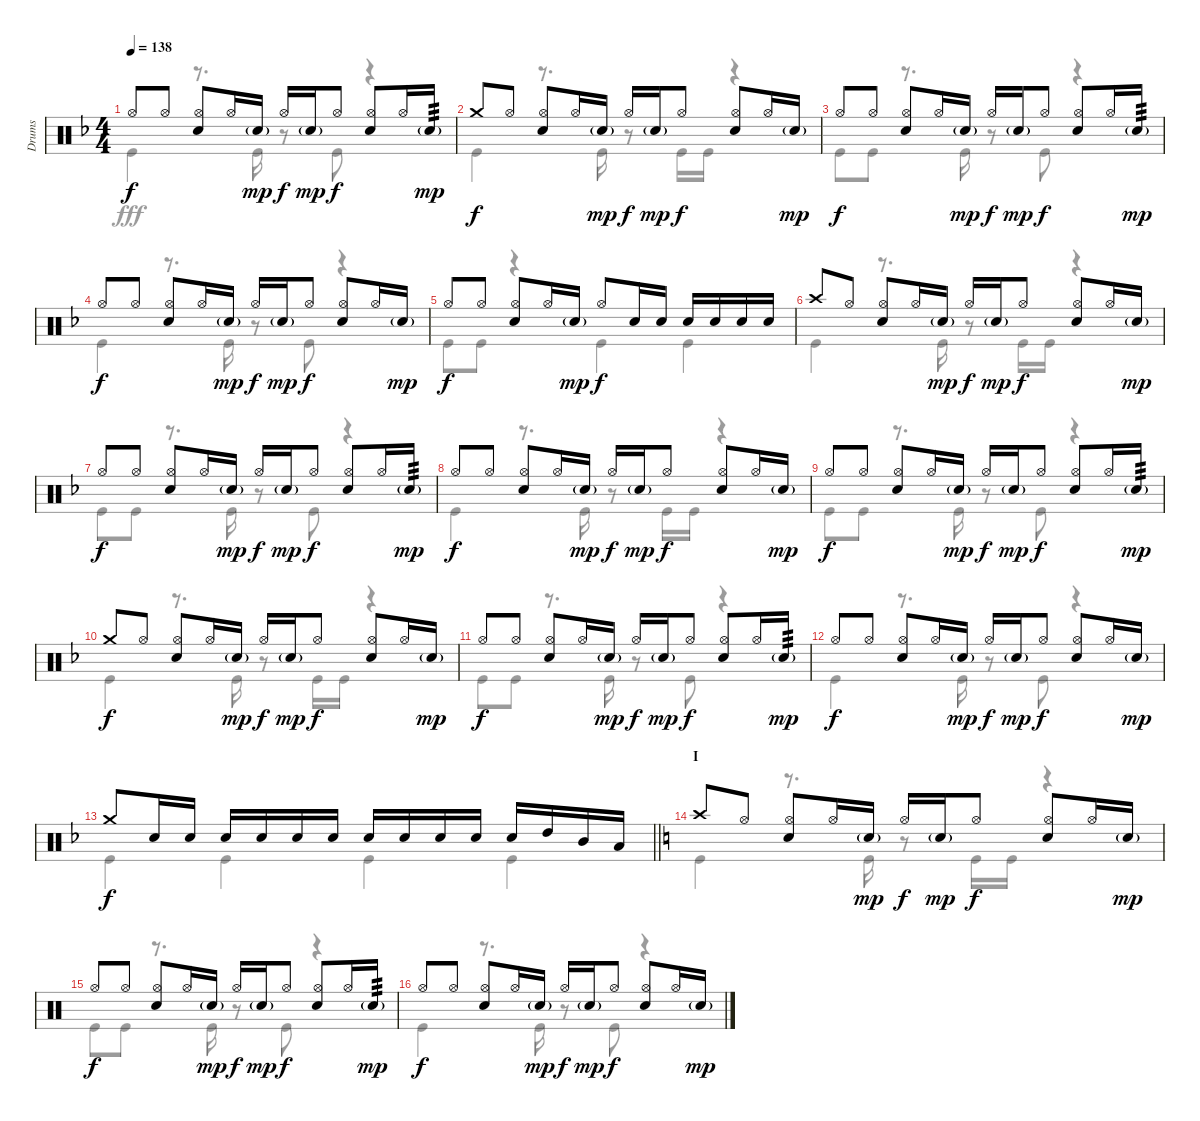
\track ("Drums" "Drums") {instrument percussion}
\staff {score}
\articulation defaults
\voice
\ts (4 4)
\tempo 138
\clef neutral
\ks f "Hi-Hat (open)".8{dy f} "Hi-Hat (open)".8
("Hi-Hat (open)" "Snare (hit) 2").8 "Hi-Hat (open)".16 "Snare (hit) 2"{g}.16{dy mp} "Hi-Hat (open)".16{dy f} "Snare (hit) 2"{g}.16{dy mp} "Hi-Hat (open)".8{dy f} ("Hi-Hat (open)" "Snare (hit) 2").8 "Hi-Hat (open)".16 "Snare (hit) 2"{g}.16{tp 3 dy mp} |
"Crash medium (hit)".8{dy f} "Hi-Hat (open)".8 ("Hi-Hat (open)" "Snare (hit) 2").8 "Hi-Hat (open)".16 "Snare (hit) 2"{g}.16{dy mp} "Hi-Hat (open)".16{dy f} "Snare (hit) 2"{g}.16{dy mp} "Hi-Hat (open)".8{dy f} ("Hi-Hat (open)" "Snare (hit) 2").8 "Hi-Hat (open)".16 "Snare (hit) 2"{g}.16{dy mp} |
"Hi-Hat (open)".8{dy f} "Hi-Hat (open)".8 ("Hi-Hat (open)" "Snare (hit) 2").8 "Hi-Hat (open)".16 "Snare (hit) 2"{g}.16{dy mp} "Hi-Hat (open)".16{dy f} "Snare (hit) 2"{g}.16{dy mp} "Hi-Hat (open)".8{dy f} ("Hi-Hat (open)" "Snare (hit) 2").8 "Hi-Hat (open)".16 "Snare (hit) 2"{g}.16{tp 3 dy mp} |
"Hi-Hat (open)".8{dy f} "Hi-Hat (open)".8 ("Hi-Hat (open)" "Snare (hit) 2").8 "Hi-Hat (open)".16 "Snare (hit) 2"{g}.16{dy mp} "Hi-Hat (open)".16{dy f} "Snare (hit) 2"{g}.16{dy mp} "Hi-Hat (open)".8{dy f} ("Hi-Hat (open)" "Snare (hit) 2").8 "Hi-Hat (open)".16 "Snare (hit) 2"{g}.16{dy mp} |
"Hi-Hat (open)".8{dy f} "Hi-Hat (open)".8 ("Hi-Hat (open)" "Snare (hit) 2").8 "Hi-Hat (open)".16 "Snare (hit) 2"{g}.16{dy mp} "Hi-Hat (open)".8{dy f} "Snare (hit) 2".16 "Snare (hit) 2".16 "Snare (hit) 2".16 "Snare (hit) 2".16 "Snare (hit) 2".16 "Snare (hit) 2".16 |
"Crash high (hit)".8 "Hi-Hat (open)".8 ("Hi-Hat (open)" "Snare (hit) 2").8 "Hi-Hat (open)".16 "Snare (hit) 2"{g}.16{dy mp} "Hi-Hat (open)".16{dy f} "Snare (hit) 2"{g}.16{dy mp} "Hi-Hat (open)".8{dy f} ("Hi-Hat (open)" "Snare (hit) 2").8 "Hi-Hat (open)".16 "Snare (hit) 2"{g}.16{dy mp} |
"Hi-Hat (open)".8{dy f} "Hi-Hat (open)".8 ("Hi-Hat (open)" "Snare (hit) 2").8 "Hi-Hat (open)".16 "Snare (hit) 2"{g}.16{dy mp} "Hi-Hat (open)".16{dy f} "Snare (hit) 2"{g}.16{dy mp} "Hi-Hat (open)".8{dy f} ("Hi-Hat (open)" "Snare (hit) 2").8 "Hi-Hat (open)".16 "Snare (hit) 2"{g}.16{tp 3 dy mp} |
"Hi-Hat (open)".8{dy f} "Hi-Hat (open)".8 ("Hi-Hat (open)" "Snare (hit) 2").8 "Hi-Hat (open)".16 "Snare (hit) 2"{g}.16{dy mp} "Hi-Hat (open)".16{dy f} "Snare (hit) 2"{g}.16{dy mp} "Hi-Hat (open)".8{dy f} ("Hi-Hat (open)" "Snare (hit) 2").8 "Hi-Hat (open)".16 "Snare (hit) 2"{g}.16{dy mp} |
"Hi-Hat (open)".8{dy f} "Hi-Hat (open)".8 ("Hi-Hat (open)" "Snare (hit) 2").8 "Hi-Hat (open)".16 "Snare (hit) 2"{g}.16{dy mp} "Hi-Hat (open)".16{dy f} "Snare (hit) 2"{g}.16{dy mp} "Hi-Hat (open)".8{dy f} ("Hi-Hat (open)" "Snare (hit) 2").8 "Hi-Hat (open)".16 "Snare (hit) 2"{g}.16{tp 3 dy mp} |
"Crash medium (hit)".8{dy f} "Hi-Hat (open)".8 ("Hi-Hat (open)" "Snare (hit) 2").8 "Hi-Hat (open)".16 "Snare (hit) 2"{g}.16{dy mp} "Hi-Hat (open)".16{dy f} "Snare (hit) 2"{g}.16{dy mp} "Hi-Hat (open)".8{dy f} ("Hi-Hat (open)" "Snare (hit) 2").8 "Hi-Hat (open)".16 "Snare (hit) 2"{g}.16{dy mp} |
"Hi-Hat (open)".8{dy f} "Hi-Hat (open)".8 ("Hi-Hat (open)" "Snare (hit) 2").8 "Hi-Hat (open)".16 "Snare (hit) 2"{g}.16{dy mp} "Hi-Hat (open)".16{dy f} "Snare (hit) 2"{g}.16{dy mp} "Hi-Hat (open)".8{dy f} ("Hi-Hat (open)" "Snare (hit) 2").8 "Hi-Hat (open)".16 "Snare (hit) 2"{g}.16{tp 3 dy mp} |
"Hi-Hat (open)".8{dy f} "Hi-Hat (open)".8 ("Hi-Hat (open)" "Snare (hit) 2").8 "Hi-Hat (open)".16 "Snare (hit) 2"{g}.16{dy mp} "Hi-Hat (open)".16{dy f} "Snare (hit) 2"{g}.16{dy mp} "Hi-Hat (open)".8{dy f} ("Hi-Hat (open)" "Snare (hit) 2").8 "Hi-Hat (open)".16 "Snare (hit) 2"{g}.16{dy mp} |
\barLineRight lightlight "Crash medium (hit)".8{dy f} "Snare (hit) 2".16 "Snare (hit) 2".16 "Snare (hit) 2".16 "Snare (hit) 2".16 "Snare (hit) 2".16 "Snare (hit) 2".16 "Snare (hit) 2".16 "Snare (hit) 2".16 "Snare (hit) 2".16 "Snare (hit) 2".16 "Snare (hit) 2".16 "High Tom (hit)".16 "Mid Tom (hit)".16 "Low Tom (hit)".16
|
\section ("" "I")
\ks c "Crash high (hit)".8 "Hi-Hat (open)".8
("Hi-Hat (open)" "Snare (hit) 2").8 "Hi-Hat (open)".16 "Snare (hit) 2"{g}.16{dy mp} "Hi-Hat (open)".16{dy f} "Snare (hit) 2"{g}.16{dy mp} "Hi-Hat (open)".8{dy f} ("Hi-Hat (open)" "Snare (hit) 2").8 "Hi-Hat (open)".16 "Snare (hit) 2"{g}.16{dy mp} |
"Hi-Hat (open)".8{dy f} "Hi-Hat (open)".8 ("Hi-Hat (open)" "Snare (hit) 2").8 "Hi-Hat (open)".16 "Snare (hit) 2"{g}.16{dy mp} "Hi-Hat (open)".16{dy f} "Snare (hit) 2"{g}.16{dy mp} "Hi-Hat (open)".8{dy f} ("Hi-Hat (open)" "Snare (hit) 2").8 "Hi-Hat (open)".16 "Snare (hit) 2"{g}.16{tp 3 dy mp} |
"Hi-Hat (open)".8{dy f} "Hi-Hat (open)".8 ("Hi-Hat (open)" "Snare (hit) 2").8 "Hi-Hat (open)".16 "Snare (hit) 2"{g}.16{dy mp} "Hi-Hat (open)".16{dy f} "Snare (hit) 2"{g}.16{dy mp} "Hi-Hat (open)".8{dy f} ("Hi-Hat (open)" "Snare (hit) 2").8 "Hi-Hat (open)".16 "Snare (hit) 2"{g}.16{dy mp}
\voice
\clef neutral
\ottava regular
\simile none
\ks f "Kick (hit)".4{dy fff}
r.8{d} "Kick (hit)".16 r.8 "Kick (hit)".8 r.4 |
"Kick (hit)".4 r.8{d} "Kick (hit)".16 r.8 "Kick (hit)".16 "Kick (hit)".16 r.4 |
"Kick (hit)".8 "Kick (hit)".8 r.8{d} "Kick (hit)".16 r.8 "Kick (hit)".8 r.4 |
"Kick (hit)".4 r.8{d} "Kick (hit)".16 r.8 "Kick (hit)".8 r.4 |
"Kick (hit)".8 "Kick (hit)".8 r.4 "Kick (hit)".4 "Kick (hit)".4 |
"Kick (hit)".4 r.8{d} "Kick (hit)".16 r.8 "Kick (hit)".16 "Kick (hit)".16 r.4 |
"Kick (hit)".8 "Kick (hit)".8 r.8{d} "Kick (hit)".16 r.8 "Kick (hit)".8 r.4 |
"Kick (hit)".4 r.8{d} "Kick (hit)".16 r.8 "Kick (hit)".16 "Kick (hit)".16 r.4 |
"Kick (hit)".8 "Kick (hit)".8 r.8{d} "Kick (hit)".16 r.8 "Kick (hit)".8 r.4 |
"Kick (hit)".4 r.8{d} "Kick (hit)".16 r.8 "Kick (hit)".16 "Kick (hit)".16 r.4 |
"Kick (hit)".8 "Kick (hit)".8 r.8{d} "Kick (hit)".16 r.8 "Kick (hit)".8 r.4 |
"Kick (hit)".4 r.8{d} "Kick (hit)".16 r.8 "Kick (hit)".8 r.4 |
\barLineRight lightlight "Kick (hit)".4 "Kick (hit)".4 "Kick (hit)".4 "Kick (hit)".4
|
\ks c "Kick (hit)".4
r.8{d} "Kick (hit)".16 r.8 "Kick (hit)".16 "Kick (hit)".16 r.4 |
"Kick (hit)".8 "Kick (hit)".8 r.8{d} "Kick (hit)".16 r.8 "Kick (hit)".8 r.4 |
"Kick (hit)".4 r.8{d} "Kick (hit)".16 r.8 "Kick (hit)".8 r.4
